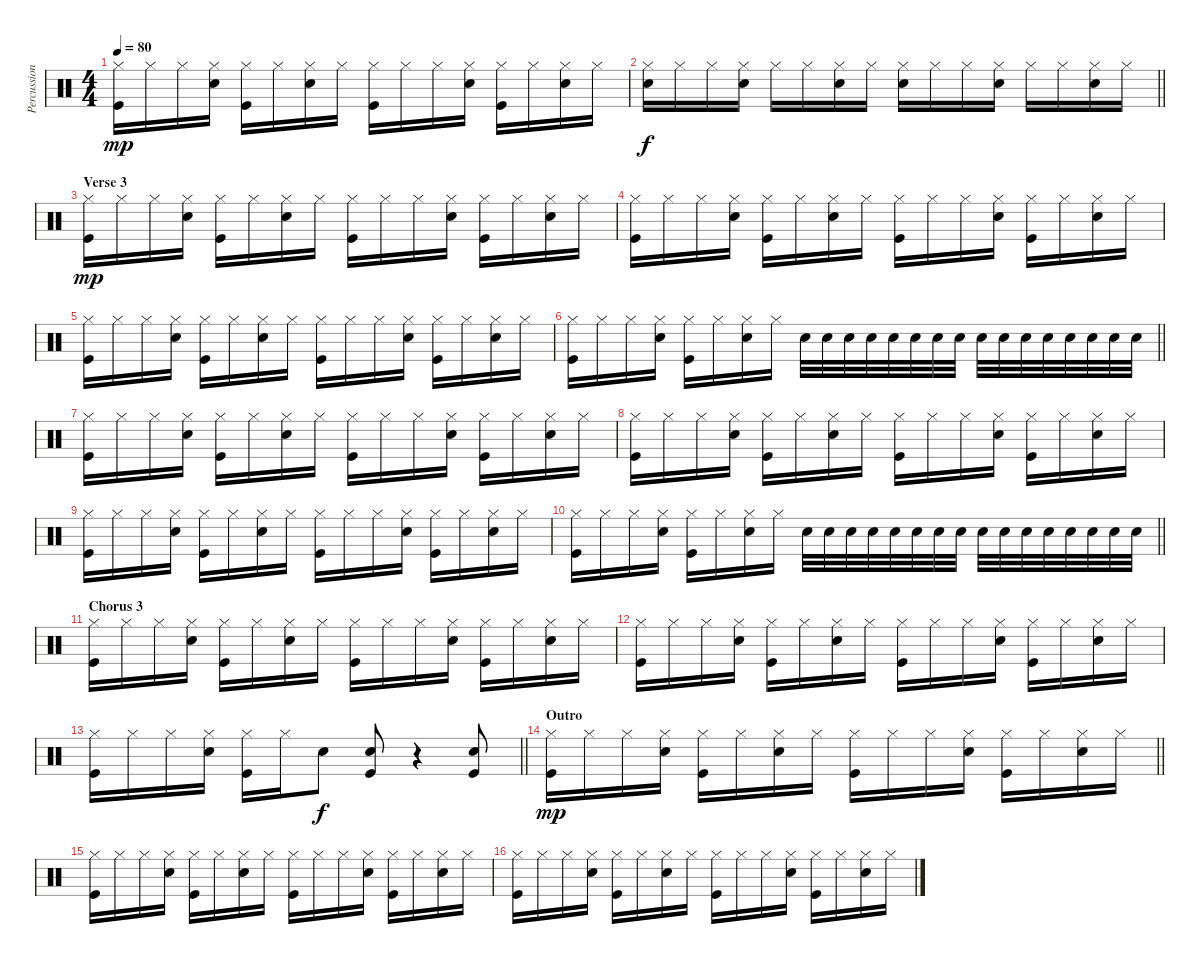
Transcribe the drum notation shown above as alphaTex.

\track ("Percussion" "Percussion") {instrument percussion}
\staff {score}
\articulation defaults
\ts (4 4)
\tempo 80
\clef neutral
\ks c
("Kick (hit)" "Hi-Hat (closed)").16{dy mp} "Hi-Hat (closed)".16 "Hi-Hat (closed)".16 ("Snare (hit) 2" "Hi-Hat (closed)").16 ("Kick (hit)" "Hi-Hat (closed)").16 "Hi-Hat (closed)".16 ("Snare (hit) 2" "Hi-Hat (closed)").16 "Hi-Hat (closed)".16 ("Kick (hit)" "Hi-Hat (closed)").16 "Hi-Hat (closed)".16 "Hi-Hat (closed)".16 ("Snare (hit) 2" "Hi-Hat (closed)").16 ("Kick (hit)" "Hi-Hat (closed)").16 "Hi-Hat (closed)".16 ("Snare (hit) 2" "Hi-Hat (closed)").16 "Hi-Hat (closed)".16 |
\barLineRight lightlight
("Hi-Hat (closed)" "Snare (hit) 2").16{dy f} "Hi-Hat (closed)".16 "Hi-Hat (closed)".16 ("Hi-Hat (closed)" "Snare (hit) 2").16 "Hi-Hat (closed)".16 "Hi-Hat (closed)".16 ("Hi-Hat (closed)" "Snare (hit) 2").16 "Hi-Hat (closed)".16 ("Hi-Hat (closed)" "Snare (hit) 2").16 "Hi-Hat (closed)".16 "Hi-Hat (closed)".16 ("Hi-Hat (closed)" "Snare (hit) 2").16 "Hi-Hat (closed)".16 "Hi-Hat (closed)".16 ("Hi-Hat (closed)" "Snare (hit) 2").16 "Hi-Hat (closed)".16 |
\section ("" "Verse 3")
("Kick (hit)" "Hi-Hat (closed)").16{dy mp} "Hi-Hat (closed)".16 "Hi-Hat (closed)".16 ("Snare (hit) 2" "Hi-Hat (closed)").16 ("Kick (hit)" "Hi-Hat (closed)").16 "Hi-Hat (closed)".16 ("Snare (hit) 2" "Hi-Hat (closed)").16 "Hi-Hat (closed)".16 ("Kick (hit)" "Hi-Hat (closed)").16 "Hi-Hat (closed)".16 "Hi-Hat (closed)".16 ("Snare (hit) 2" "Hi-Hat (closed)").16 ("Kick (hit)" "Hi-Hat (closed)").16 "Hi-Hat (closed)".16 ("Snare (hit) 2" "Hi-Hat (closed)").16 "Hi-Hat (closed)".16 |
("Kick (hit)" "Hi-Hat (closed)").16 "Hi-Hat (closed)".16 "Hi-Hat (closed)".16 ("Snare (hit) 2" "Hi-Hat (closed)").16 ("Kick (hit)" "Hi-Hat (closed)").16 "Hi-Hat (closed)".16 ("Snare (hit) 2" "Hi-Hat (closed)").16 "Hi-Hat (closed)".16 ("Kick (hit)" "Hi-Hat (closed)").16 "Hi-Hat (closed)".16 "Hi-Hat (closed)".16 ("Snare (hit) 2" "Hi-Hat (closed)").16 ("Kick (hit)" "Hi-Hat (closed)").16 "Hi-Hat (closed)".16 ("Snare (hit) 2" "Hi-Hat (closed)").16 "Hi-Hat (closed)".16 |
("Kick (hit)" "Hi-Hat (closed)").16 "Hi-Hat (closed)".16 "Hi-Hat (closed)".16 ("Snare (hit) 2" "Hi-Hat (closed)").16 ("Kick (hit)" "Hi-Hat (closed)").16 "Hi-Hat (closed)".16 ("Snare (hit) 2" "Hi-Hat (closed)").16 "Hi-Hat (closed)".16 ("Kick (hit)" "Hi-Hat (closed)").16 "Hi-Hat (closed)".16 "Hi-Hat (closed)".16 ("Snare (hit) 2" "Hi-Hat (closed)").16 ("Kick (hit)" "Hi-Hat (closed)").16 "Hi-Hat (closed)".16 ("Snare (hit) 2" "Hi-Hat (closed)").16 "Hi-Hat (closed)".16 |
\barLineRight lightlight
("Kick (hit)" "Hi-Hat (closed)").16 "Hi-Hat (closed)".16 "Hi-Hat (closed)".16 ("Snare (hit) 2" "Hi-Hat (closed)").16 ("Kick (hit)" "Hi-Hat (closed)").16 "Hi-Hat (closed)".16 ("Snare (hit) 2" "Hi-Hat (closed)").16 "Hi-Hat (closed)".16 "Snare (hit) 2".32 "Snare (hit) 2".32 "Snare (hit) 2".32 "Snare (hit) 2".32 "Snare (hit) 2".32 "Snare (hit) 2".32 "Snare (hit) 2".32 "Snare (hit) 2".32 "Snare (hit) 2".32 "Snare (hit) 2".32 "Snare (hit) 2".32 "Snare (hit) 2".32 "Snare (hit) 2".32 "Snare (hit) 2".32 "Snare (hit) 2".32 "Snare (hit) 2".32 |
("Kick (hit)" "Hi-Hat (closed)").16 "Hi-Hat (closed)".16 "Hi-Hat (closed)".16 ("Snare (hit) 2" "Hi-Hat (closed)").16 ("Kick (hit)" "Hi-Hat (closed)").16 "Hi-Hat (closed)".16 ("Snare (hit) 2" "Hi-Hat (closed)").16 "Hi-Hat (closed)".16 ("Kick (hit)" "Hi-Hat (closed)").16 "Hi-Hat (closed)".16 "Hi-Hat (closed)".16 ("Snare (hit) 2" "Hi-Hat (closed)").16 ("Kick (hit)" "Hi-Hat (closed)").16 "Hi-Hat (closed)".16 ("Snare (hit) 2" "Hi-Hat (closed)").16 "Hi-Hat (closed)".16 |
("Kick (hit)" "Hi-Hat (closed)").16 "Hi-Hat (closed)".16 "Hi-Hat (closed)".16 ("Snare (hit) 2" "Hi-Hat (closed)").16 ("Kick (hit)" "Hi-Hat (closed)").16 "Hi-Hat (closed)".16 ("Snare (hit) 2" "Hi-Hat (closed)").16 "Hi-Hat (closed)".16 ("Kick (hit)" "Hi-Hat (closed)").16 "Hi-Hat (closed)".16 "Hi-Hat (closed)".16 ("Snare (hit) 2" "Hi-Hat (closed)").16 ("Kick (hit)" "Hi-Hat (closed)").16 "Hi-Hat (closed)".16 ("Snare (hit) 2" "Hi-Hat (closed)").16 "Hi-Hat (closed)".16 |
("Kick (hit)" "Hi-Hat (closed)").16 "Hi-Hat (closed)".16 "Hi-Hat (closed)".16 ("Snare (hit) 2" "Hi-Hat (closed)").16 ("Kick (hit)" "Hi-Hat (closed)").16 "Hi-Hat (closed)".16 ("Snare (hit) 2" "Hi-Hat (closed)").16 "Hi-Hat (closed)".16 ("Kick (hit)" "Hi-Hat (closed)").16 "Hi-Hat (closed)".16 "Hi-Hat (closed)".16 ("Snare (hit) 2" "Hi-Hat (closed)").16 ("Kick (hit)" "Hi-Hat (closed)").16 "Hi-Hat (closed)".16 ("Snare (hit) 2" "Hi-Hat (closed)").16 "Hi-Hat (closed)".16 |
\barLineRight lightlight
("Kick (hit)" "Hi-Hat (closed)").16 "Hi-Hat (closed)".16 "Hi-Hat (closed)".16 ("Snare (hit) 2" "Hi-Hat (closed)").16 ("Kick (hit)" "Hi-Hat (closed)").16 "Hi-Hat (closed)".16 ("Snare (hit) 2" "Hi-Hat (closed)").16 "Hi-Hat (closed)".16 "Snare (hit) 2".32 "Snare (hit) 2".32 "Snare (hit) 2".32 "Snare (hit) 2".32 "Snare (hit) 2".32 "Snare (hit) 2".32 "Snare (hit) 2".32 "Snare (hit) 2".32 "Snare (hit) 2".32 "Snare (hit) 2".32 "Snare (hit) 2".32 "Snare (hit) 2".32 "Snare (hit) 2".32 "Snare (hit) 2".32 "Snare (hit) 2".32 "Snare (hit) 2".32 |
\section ("" "Chorus 3")
("Kick (hit)" "Hi-Hat (closed)").16 "Hi-Hat (closed)".16 "Hi-Hat (closed)".16 ("Snare (hit) 2" "Hi-Hat (closed)").16 ("Kick (hit)" "Hi-Hat (closed)").16 "Hi-Hat (closed)".16 ("Snare (hit) 2" "Hi-Hat (closed)").16 "Hi-Hat (closed)".16 ("Kick (hit)" "Hi-Hat (closed)").16 "Hi-Hat (closed)".16 "Hi-Hat (closed)".16 ("Snare (hit) 2" "Hi-Hat (closed)").16 ("Kick (hit)" "Hi-Hat (closed)").16 "Hi-Hat (closed)".16 ("Snare (hit) 2" "Hi-Hat (closed)").16 "Hi-Hat (closed)".16 |
("Kick (hit)" "Hi-Hat (closed)").16 "Hi-Hat (closed)".16 "Hi-Hat (closed)".16 ("Snare (hit) 2" "Hi-Hat (closed)").16 ("Kick (hit)" "Hi-Hat (closed)").16 "Hi-Hat (closed)".16 ("Snare (hit) 2" "Hi-Hat (closed)").16 "Hi-Hat (closed)".16 ("Kick (hit)" "Hi-Hat (closed)").16 "Hi-Hat (closed)".16 "Hi-Hat (closed)".16 ("Snare (hit) 2" "Hi-Hat (closed)").16 ("Kick (hit)" "Hi-Hat (closed)").16 "Hi-Hat (closed)".16 ("Snare (hit) 2" "Hi-Hat (closed)").16 "Hi-Hat (closed)".16 |
\barLineRight lightlight
("Kick (hit)" "Hi-Hat (closed)").16 "Hi-Hat (closed)".16 "Hi-Hat (closed)".16 ("Snare (hit) 2" "Hi-Hat (closed)").16 ("Kick (hit)" "Hi-Hat (closed)").16 "Hi-Hat (closed)".16 "Snare (hit) 2".8{dy f} ("Kick (hit)" "Snare (hit) 2").8 r.4 ("Snare (hit) 2" "Kick (hit)").8 |
\section ("" "Outro")
\barLineRight lightlight
("Kick (hit)" "Hi-Hat (closed)").16{dy mp} "Hi-Hat (closed)".16 "Hi-Hat (closed)".16 ("Snare (hit) 2" "Hi-Hat (closed)").16 ("Kick (hit)" "Hi-Hat (closed)").16 "Hi-Hat (closed)".16 ("Snare (hit) 2" "Hi-Hat (closed)").16 "Hi-Hat (closed)".16 ("Kick (hit)" "Hi-Hat (closed)").16 "Hi-Hat (closed)".16 "Hi-Hat (closed)".16 ("Snare (hit) 2" "Hi-Hat (closed)").16 ("Kick (hit)" "Hi-Hat (closed)").16 "Hi-Hat (closed)".16 ("Snare (hit) 2" "Hi-Hat (closed)").16 "Hi-Hat (closed)".16 |
("Kick (hit)" "Hi-Hat (closed)").16 "Hi-Hat (closed)".16 "Hi-Hat (closed)".16 ("Snare (hit) 2" "Hi-Hat (closed)").16 ("Kick (hit)" "Hi-Hat (closed)").16 "Hi-Hat (closed)".16 ("Snare (hit) 2" "Hi-Hat (closed)").16 "Hi-Hat (closed)".16 ("Kick (hit)" "Hi-Hat (closed)").16 "Hi-Hat (closed)".16 "Hi-Hat (closed)".16 ("Snare (hit) 2" "Hi-Hat (closed)").16 ("Kick (hit)" "Hi-Hat (closed)").16 "Hi-Hat (closed)".16 ("Snare (hit) 2" "Hi-Hat (closed)").16 "Hi-Hat (closed)".16 |
("Kick (hit)" "Hi-Hat (closed)").16 "Hi-Hat (closed)".16 "Hi-Hat (closed)".16 ("Snare (hit) 2" "Hi-Hat (closed)").16 ("Kick (hit)" "Hi-Hat (closed)").16 "Hi-Hat (closed)".16 ("Snare (hit) 2" "Hi-Hat (closed)").16 "Hi-Hat (closed)".16 ("Kick (hit)" "Hi-Hat (closed)").16 "Hi-Hat (closed)".16 "Hi-Hat (closed)".16 ("Snare (hit) 2" "Hi-Hat (closed)").16 ("Kick (hit)" "Hi-Hat (closed)").16 "Hi-Hat (closed)".16 ("Snare (hit) 2" "Hi-Hat (closed)").16 "Hi-Hat (closed)".16
